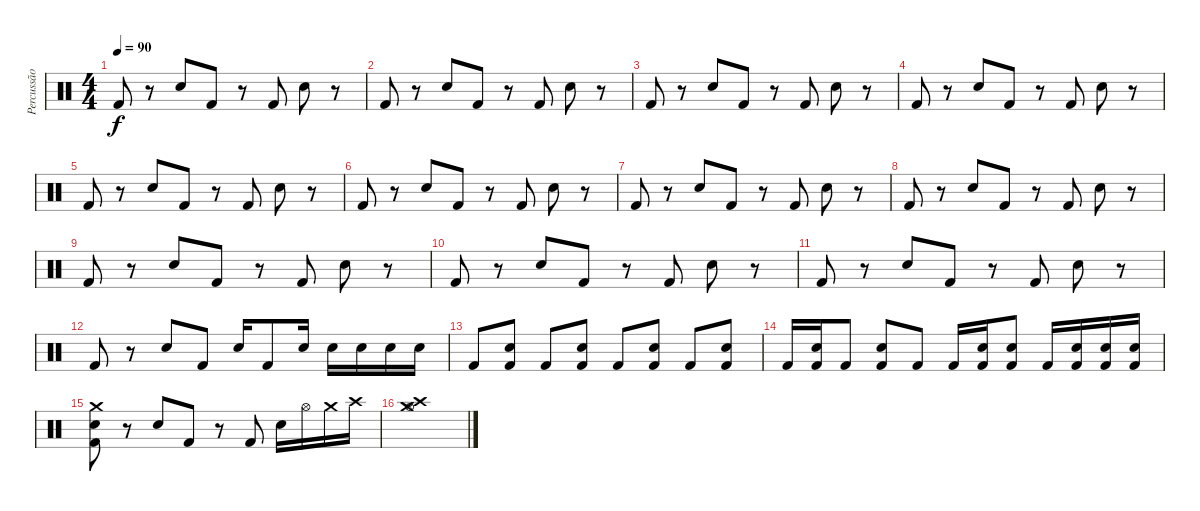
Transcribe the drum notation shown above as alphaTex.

\track ("Percussão" "Percussão") {instrument percussion}
\staff {score}
\articulation defaults
\ts (4 4)
\tempo 90
\clef neutral
\ks c "Kick (hit) 2".8{dy f}
r.8 "Electric Snare (hit)".8 "Kick (hit) 2".8 r.8 "Kick (hit) 2".8 "Electric Snare (hit)".8 r.8 |
"Kick (hit) 2".8 r.8 "Electric Snare (hit)".8 "Kick (hit) 2".8 r.8 "Kick (hit) 2".8 "Electric Snare (hit)".8 r.8 |
"Kick (hit) 2".8 r.8 "Electric Snare (hit)".8 "Kick (hit) 2".8 r.8 "Kick (hit) 2".8 "Electric Snare (hit)".8 r.8 |
"Kick (hit) 2".8 r.8 "Electric Snare (hit)".8 "Kick (hit) 2".8 r.8 "Kick (hit) 2".8 "Electric Snare (hit)".8 r.8 |
"Kick (hit) 2".8 r.8 "Electric Snare (hit)".8 "Kick (hit) 2".8 r.8 "Kick (hit) 2".8 "Electric Snare (hit)".8 r.8 |
"Kick (hit) 2".8 r.8 "Electric Snare (hit)".8 "Kick (hit) 2".8 r.8 "Kick (hit) 2".8 "Electric Snare (hit)".8 r.8 |
"Kick (hit) 2".8 r.8 "Electric Snare (hit)".8 "Kick (hit) 2".8 r.8 "Kick (hit) 2".8 "Electric Snare (hit)".8 r.8 |
"Kick (hit) 2".8 r.8 "Electric Snare (hit)".8 "Kick (hit) 2".8 r.8 "Kick (hit) 2".8 "Electric Snare (hit)".8 r.8 |
"Kick (hit) 2".8 r.8 "Electric Snare (hit)".8 "Kick (hit) 2".8 r.8 "Kick (hit) 2".8 "Electric Snare (hit)".8 r.8 |
"Kick (hit) 2".8 r.8 "Electric Snare (hit)".8 "Kick (hit) 2".8 r.8 "Kick (hit) 2".8 "Electric Snare (hit)".8 r.8 |
"Kick (hit) 2".8 r.8 "Electric Snare (hit)".8 "Kick (hit) 2".8 r.8 "Kick (hit) 2".8 "Electric Snare (hit)".8 r.8 |
"Kick (hit) 2".8 r.8 "Electric Snare (hit)".8 "Kick (hit) 2".8 "Electric Snare (hit)".16 "Kick (hit) 2".8 "Electric Snare (hit)".16 "Electric Snare (hit)".16 "Electric Snare (hit)".16 "Electric Snare (hit)".16 "Electric Snare (hit)".16 |
"Kick (hit) 2".8 ("Electric Snare (hit)" "Kick (hit) 2").8 "Kick (hit) 2".8 ("Electric Snare (hit)" "Kick (hit) 2").8 "Kick (hit) 2".8 ("Electric Snare (hit)" "Kick (hit) 2").8 "Kick (hit) 2".8 ("Electric Snare (hit)" "Kick (hit) 2").8 |
"Kick (hit) 2".16 ("Electric Snare (hit)" "Kick (hit) 2").16 "Kick (hit) 2".8 ("Electric Snare (hit)" "Kick (hit) 2").8 "Kick (hit) 2".8 "Kick (hit) 2".16 ("Electric Snare (hit)" "Kick (hit) 2").16 ("Electric Snare (hit)" "Kick (hit) 2").8 "Kick (hit) 2".16 ("Electric Snare (hit)" "Kick (hit) 2").16 ("Electric Snare (hit)" "Kick (hit) 2").16 ("Electric Snare (hit)" "Kick (hit) 2").16 |
("Crash medium (hit)" "Electric Snare (hit)" "Kick (hit) 2").8 r.8 "Electric Snare (hit)".8 "Kick (hit) 2".8 r.8 "Kick (hit) 2".8 "Electric Snare (hit)".16 "Hi-Hat (open)".16 "Crash medium (hit)".16 "Crash high (hit)".16 |
("Hi-Hat (open)" "Crash high (hit)" "Crash medium (hit)").1
